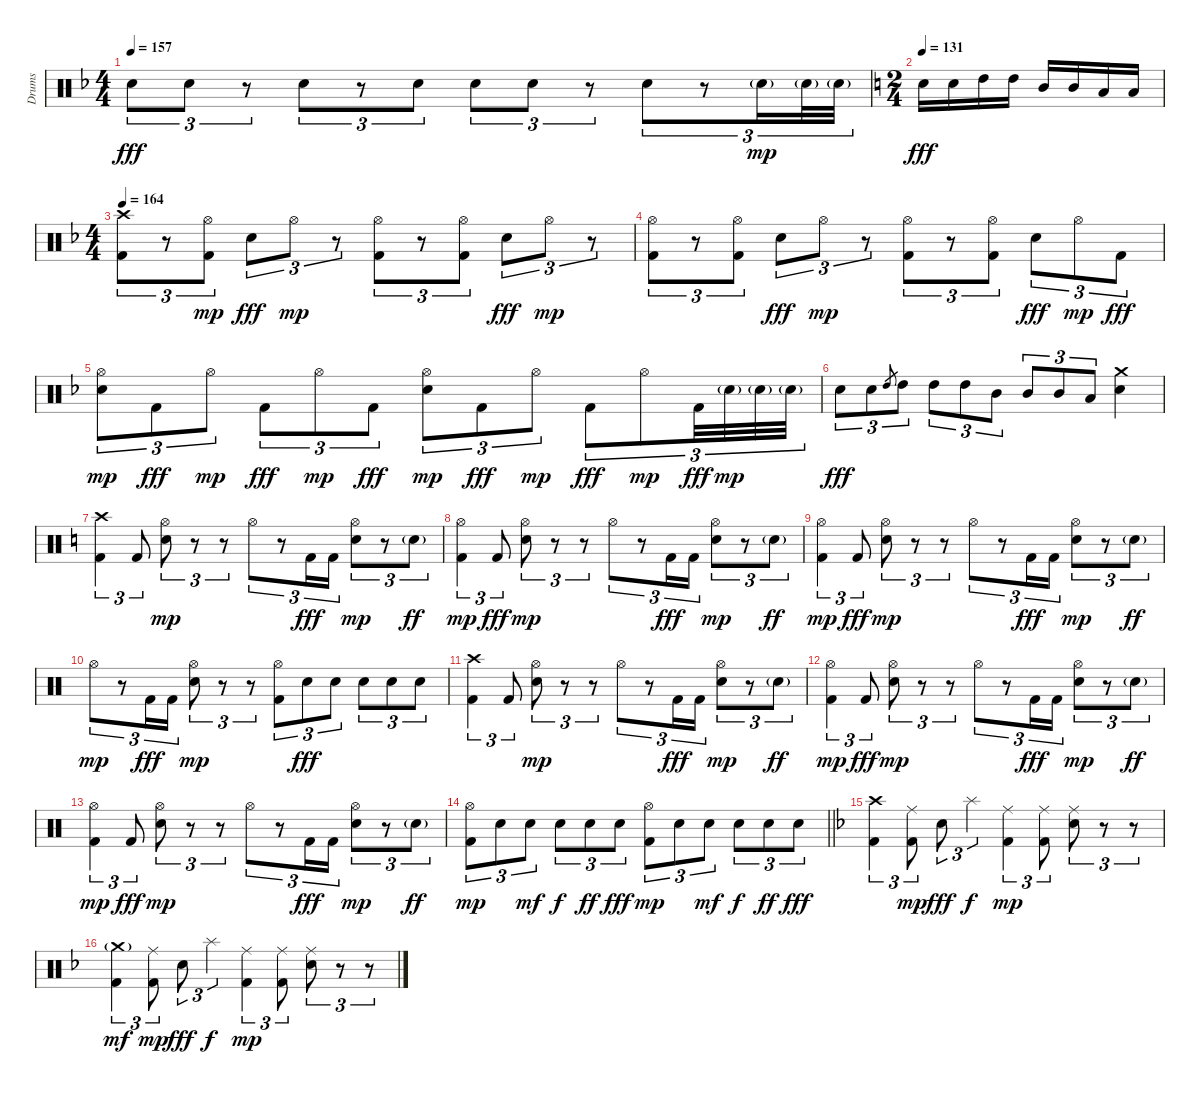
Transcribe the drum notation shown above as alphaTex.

\track ("Drums" "Drums") {instrument percussion}
\staff {score}
\articulation defaults
\ts (4 4)
\tempo 157
\clef neutral
\ks f "Electric Snare (hit)".8{tu (3 2) dy fff} "Electric Snare (hit)".8{tu (3 2)}
r.8{tu (3 2)} "Electric Snare (hit)".8{tu (3 2)} r.8{tu (3 2)} "Electric Snare (hit)".8{tu (3 2)} "Electric Snare (hit)".8{tu (3 2)} "Electric Snare (hit)".8{tu (3 2)} r.8{tu (3 2)} "Electric Snare (hit)".8{tu (3 2)} r.8{tu (3 2)} "Electric Snare (hit)"{g}.16{tu (3 2) dy mp} "Electric Snare (hit)"{g}.32{tu (3 2)} "Electric Snare (hit)"{g}.32{tu (3 2)} |
\ts (2 4)
\tempo 131
\ks c "Electric Snare (hit)".16{dy fff} "Electric Snare (hit)".16 "High Tom (hit)".16 "High Tom (hit)".16 "Mid Tom (hit)".16 "Mid Tom (hit)".16 "Low Tom (hit)".16 "Low Tom (hit)".16
|
\ts (4 4)
\tempo 164
\ks f
("Kick (hit) 2" "Crash high (hit)").8{tu (3 2)} r.8{tu (3 2)} ("Kick (hit) 2" "Hi-Hat (open)").8{tu (3 2) dy mp} "Electric Snare (hit)".8{tu (3 2) dy fff} "Hi-Hat (open)".8{tu (3 2) dy mp} r.8{tu (3 2)} ("Kick (hit) 2" "Hi-Hat (open)").8{tu (3 2)} r.8{tu (3 2)} ("Kick (hit) 2" "Hi-Hat (open)").8{tu (3 2)} "Electric Snare (hit)".8{tu (3 2) dy fff} "Hi-Hat (open)".8{tu (3 2) dy mp} r.8{tu (3 2)} |
("Kick (hit) 2" "Hi-Hat (open)").8{tu (3 2)} r.8{tu (3 2)} ("Kick (hit) 2" "Hi-Hat (open)").8{tu (3 2)} "Electric Snare (hit)".8{tu (3 2) dy fff} "Hi-Hat (open)".8{tu (3 2) dy mp} r.8{tu (3 2)} ("Kick (hit) 2" "Hi-Hat (open)").8{tu (3 2)} r.8{tu (3 2)} ("Kick (hit) 2" "Hi-Hat (open)").8{tu (3 2)} "Electric Snare (hit)".8{tu (3 2) dy fff} "Hi-Hat (open)".8{tu (3 2) dy mp} "Kick (hit) 2".8{tu (3 2) dy fff} |
("Electric Snare (hit)" "Hi-Hat (open)").8{tu (3 2) dy mp} "Kick (hit) 2".8{tu (3 2) dy fff} "Hi-Hat (open)".8{tu (3 2) dy mp} "Kick (hit) 2".8{tu (3 2) dy fff} "Hi-Hat (open)".8{tu (3 2) dy mp} "Kick (hit) 2".8{tu (3 2) dy fff} ("Electric Snare (hit)" "Hi-Hat (open)").8{tu (3 2) dy mp} "Kick (hit) 2".8{tu (3 2) dy fff} "Hi-Hat (open)".8{tu (3 2) dy mp} "Kick (hit) 2".8{tu (3 2) dy fff} "Hi-Hat (open)".8{tu (3 2) dy mp} "Kick (hit) 2".32{tu (3 2) dy fff} "Electric Snare (hit)"{g}.32{tu (3 2) dy mp} "Electric Snare (hit)"{g}.32{tu (3 2)} "Electric Snare (hit)"{g}.32{tu (3 2)} |
"Electric Snare (hit)".8{tu (3 2) dy fff} "Electric Snare (hit)".8{tu (3 2)} "High Tom (hit)".8{gr} "High Tom (hit)".8{tu (3 2)} "High Tom (hit)".8{tu (3 2)} "High Tom (hit)".8{tu (3 2)} "Mid Tom (hit)".8{tu (3 2)} "Mid Tom (hit)".8{tu (3 2)} "Mid Tom (hit)".8{tu (3 2)} "Low Tom (hit)".8{tu (3 2)} ("Electric Snare (hit)" "Crash medium (hit)").4 |
\ks c
("Kick (hit) 2" "Crash high (hit)").4{tu (3 2)} "Kick (hit) 2".8{tu (3 2)} ("Electric Snare (hit)" "Hi-Hat (open)").8{tu (3 2) dy mp} r.8{tu (3 2)} r.8{tu (3 2)} "Hi-Hat (open)".8{tu (3 2)} r.8{tu (3 2)} "Kick (hit) 2".16{tu (3 2) dy fff} "Kick (hit) 2".16{tu (3 2)} ("Electric Snare (hit)" "Hi-Hat (open)").8{tu (3 2) dy mp} r.8{tu (3 2)} "Electric Snare (hit)"{g}.8{tu (3 2) dy ff} |
("Kick (hit) 2" "Hi-Hat (open)").4{tu (3 2) dy mp} "Kick (hit) 2".8{tu (3 2) dy fff} ("Electric Snare (hit)" "Hi-Hat (open)").8{tu (3 2) dy mp} r.8{tu (3 2)} r.8{tu (3 2)} "Hi-Hat (open)".8{tu (3 2)} r.8{tu (3 2)} "Kick (hit) 2".16{tu (3 2) dy fff} "Kick (hit) 2".16{tu (3 2)} ("Electric Snare (hit)" "Hi-Hat (open)").8{tu (3 2) dy mp} r.8{tu (3 2)} "Electric Snare (hit)"{g}.8{tu (3 2) dy ff} |
("Kick (hit) 2" "Hi-Hat (open)").4{tu (3 2) dy mp} "Kick (hit) 2".8{tu (3 2) dy fff} ("Electric Snare (hit)" "Hi-Hat (open)").8{tu (3 2) dy mp} r.8{tu (3 2)} r.8{tu (3 2)} "Hi-Hat (open)".8{tu (3 2)} r.8{tu (3 2)} "Kick (hit) 2".16{tu (3 2) dy fff} "Kick (hit) 2".16{tu (3 2)} ("Electric Snare (hit)" "Hi-Hat (open)").8{tu (3 2) dy mp} r.8{tu (3 2)} "Electric Snare (hit)"{g}.8{tu (3 2) dy ff} |
"Hi-Hat (open)".8{tu (3 2) dy mp} r.8{tu (3 2)} "Kick (hit) 2".16{tu (3 2) dy fff} "Kick (hit) 2".16{tu (3 2)} ("Electric Snare (hit)" "Hi-Hat (open)").8{tu (3 2) dy mp} r.8{tu (3 2)} r.8{tu (3 2)} ("Kick (hit) 2" "Hi-Hat (open)").8{tu (3 2)} "Electric Snare (hit)".8{tu (3 2) dy fff} "Electric Snare (hit)".8{tu (3 2)} "Electric Snare (hit)".8{tu (3 2)} "Electric Snare (hit)".8{tu (3 2)} "Electric Snare (hit)".8{tu (3 2)} |
("Kick (hit) 2" "Crash high (hit)").4{tu (3 2)} "Kick (hit) 2".8{tu (3 2)} ("Electric Snare (hit)" "Hi-Hat (open)").8{tu (3 2) dy mp} r.8{tu (3 2)} r.8{tu (3 2)} "Hi-Hat (open)".8{tu (3 2)} r.8{tu (3 2)} "Kick (hit) 2".16{tu (3 2) dy fff} "Kick (hit) 2".16{tu (3 2)} ("Electric Snare (hit)" "Hi-Hat (open)").8{tu (3 2) dy mp} r.8{tu (3 2)} "Electric Snare (hit)"{g}.8{tu (3 2) dy ff} |
("Kick (hit) 2" "Hi-Hat (open)").4{tu (3 2) dy mp} "Kick (hit) 2".8{tu (3 2) dy fff} ("Electric Snare (hit)" "Hi-Hat (open)").8{tu (3 2) dy mp} r.8{tu (3 2)} r.8{tu (3 2)} "Hi-Hat (open)".8{tu (3 2)} r.8{tu (3 2)} "Kick (hit) 2".16{tu (3 2) dy fff} "Kick (hit) 2".16{tu (3 2)} ("Electric Snare (hit)" "Hi-Hat (open)").8{tu (3 2) dy mp} r.8{tu (3 2)} "Electric Snare (hit)"{g}.8{tu (3 2) dy ff} |
("Kick (hit) 2" "Hi-Hat (open)").4{tu (3 2) dy mp} "Kick (hit) 2".8{tu (3 2) dy fff} ("Electric Snare (hit)" "Hi-Hat (open)").8{tu (3 2) dy mp} r.8{tu (3 2)} r.8{tu (3 2)} "Hi-Hat (open)".8{tu (3 2)} r.8{tu (3 2)} "Kick (hit) 2".16{tu (3 2) dy fff} "Kick (hit) 2".16{tu (3 2)} ("Electric Snare (hit)" "Hi-Hat (open)").8{tu (3 2) dy mp} r.8{tu (3 2)} "Electric Snare (hit)"{g}.8{tu (3 2) dy ff} |
\barLineRight lightlight
("Kick (hit) 2" "Hi-Hat (open)").8{tu (3 2) dy mp} "Electric Snare (hit)".8{tu (3 2)} "Electric Snare (hit)".8{tu (3 2) dy mf} "Electric Snare (hit)".8{tu (3 2) dy f} "Electric Snare (hit)".8{tu (3 2) dy ff} "Electric Snare (hit)".8{tu (3 2) dy fff} ("Kick (hit) 2" "Hi-Hat (open)").8{tu (3 2) dy mp} "Electric Snare (hit)".8{tu (3 2)} "Electric Snare (hit)".8{tu (3 2) dy mf} "Electric Snare (hit)".8{tu (3 2) dy f} "Electric Snare (hit)".8{tu (3 2) dy ff} "Electric Snare (hit)".8{tu (3 2) dy fff} |
\ks f
("Kick (hit) 2" "Crash high (hit)").4{tu (3 2)} ("Kick (hit) 2" "Ride (middle)").8{tu (3 2) dy mp} "Electric Snare (hit)".8{tu (3 2) dy fff} "Splash (hit)".4{tu (3 2) dy f} ("Kick (hit) 2" "Ride (middle)").4{tu (3 2) dy mp} ("Kick (hit) 2" "Ride (middle)").8{tu (3 2)} ("Electric Snare (hit)" "Ride (middle)").8{tu (3 2)} r.8{tu (3 2)} r.8{tu (3 2)} |
("Kick (hit) 2" "Crash medium (hit)"{g}).4{tu (3 2) dy mf} ("Kick (hit) 2" "Ride (middle)").8{tu (3 2) dy mp} "Electric Snare (hit)".8{tu (3 2) dy fff} "Splash (hit)".4{tu (3 2) dy f} ("Kick (hit) 2" "Ride (middle)").4{tu (3 2) dy mp} ("Kick (hit) 2" "Ride (middle)").8{tu (3 2)} ("Electric Snare (hit)" "Ride (middle)").8{tu (3 2)} r.8{tu (3 2)} r.8{tu (3 2)}
